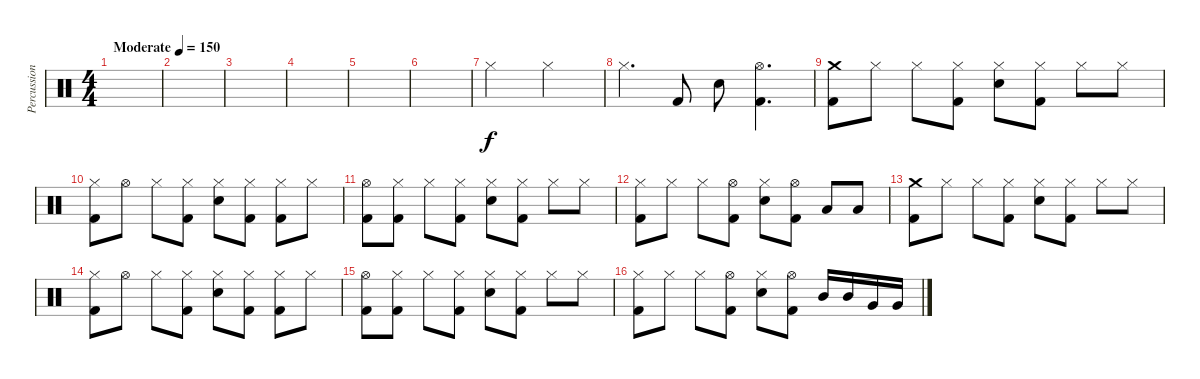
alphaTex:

\track ("Percussion" "Percussion") {instrument percussion}
\staff {score}
\articulation defaults
\ts (4 4)
\tempo (150 "Moderate")
\clef neutral
\ks c
|
|
|
|
|
|
"Hi-Hat (closed)".2 "Hi-Hat (closed)".2 |
"Hi-Hat (closed)".4{d} "Kick (hit) 2".8 "Electric Snare (hit)".8 ("Hi-Hat (open)" "Kick (hit) 2").4{d} |
("Crash medium (hit)" "Kick (hit) 2").8 "Hi-Hat (closed)".8 "Hi-Hat (closed)".8 ("Hi-Hat (closed)" "Kick (hit) 2").8 ("Hi-Hat (closed)" "Electric Snare (hit)").8 ("Hi-Hat (closed)" "Kick (hit) 2").8 "Hi-Hat (closed)".8 "Hi-Hat (closed)".8 |
("Hi-Hat (closed)" "Kick (hit) 2").8 "Hi-Hat (open)".8 "Hi-Hat (closed)".8 ("Hi-Hat (closed)" "Kick (hit) 2").8 ("Hi-Hat (closed)" "Electric Snare (hit)").8 ("Hi-Hat (closed)" "Kick (hit) 2").8 ("Hi-Hat (closed)" "Kick (hit) 2").8 "Hi-Hat (closed)".8 |
("Hi-Hat (open)" "Kick (hit) 2").8 ("Hi-Hat (closed)" "Kick (hit) 2").8 "Hi-Hat (closed)".8 ("Hi-Hat (closed)" "Kick (hit) 2").8 ("Hi-Hat (closed)" "Electric Snare (hit)").8 ("Hi-Hat (closed)" "Kick (hit) 2").8 "Hi-Hat (closed)".8 "Hi-Hat (closed)".8 |
("Hi-Hat (closed)" "Kick (hit) 2").8 "Hi-Hat (closed)".8 "Hi-Hat (closed)".8 ("Hi-Hat (open)" "Kick (hit) 2").8 ("Hi-Hat (closed)" "Electric Snare (hit)").8 ("Hi-Hat (open)" "Kick (hit) 2").8 "Low Tom (hit)".8 "Low Tom (hit)".8 |
("Crash medium (hit)" "Kick (hit) 2").8 "Hi-Hat (closed)".8 "Hi-Hat (closed)".8 ("Hi-Hat (closed)" "Kick (hit) 2").8 ("Hi-Hat (closed)" "Electric Snare (hit)").8 ("Hi-Hat (closed)" "Kick (hit) 2").8 "Hi-Hat (closed)".8 "Hi-Hat (closed)".8 |
("Hi-Hat (closed)" "Kick (hit) 2").8 "Hi-Hat (open)".8 "Hi-Hat (closed)".8 ("Hi-Hat (closed)" "Kick (hit) 2").8 ("Hi-Hat (closed)" "Electric Snare (hit)").8 ("Hi-Hat (closed)" "Kick (hit) 2").8 ("Hi-Hat (closed)" "Kick (hit) 2").8 "Hi-Hat (closed)".8 |
("Hi-Hat (open)" "Kick (hit) 2").8 ("Hi-Hat (closed)" "Kick (hit) 2").8 "Hi-Hat (closed)".8 ("Hi-Hat (closed)" "Kick (hit) 2").8 ("Hi-Hat (closed)" "Electric Snare (hit)").8 ("Hi-Hat (closed)" "Kick (hit) 2").8 "Hi-Hat (closed)".8 "Hi-Hat (closed)".8 |
("Hi-Hat (closed)" "Kick (hit) 2").8 "Hi-Hat (closed)".8 "Hi-Hat (closed)".8 ("Hi-Hat (open)" "Kick (hit) 2").8 ("Hi-Hat (closed)" "Electric Snare (hit)").8 ("Hi-Hat (open)" "Kick (hit) 2").8 "Mid Tom (hit)".16 "Mid Tom (hit)".16 "Very Low Tom (hit)".16 "Very Low Tom (hit)".16
